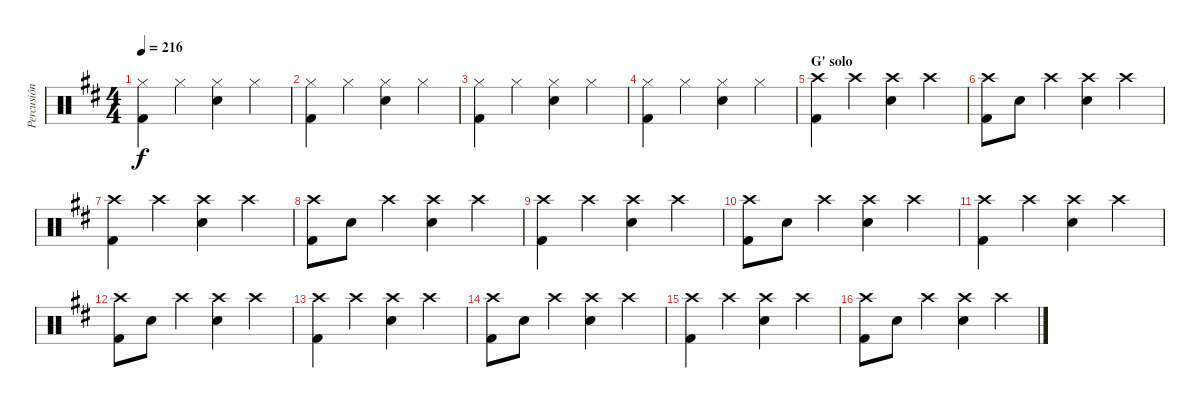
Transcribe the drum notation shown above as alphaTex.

\track ("Percusión" "Percusión") {instrument percussion}
\staff {score}
\articulation defaults
\ts (4 4)
\tempo 216
\clef neutral
\ks d
("Hi-Hat (closed)" "Kick (hit) 2").4{dy f} "Hi-Hat (closed)".4 ("Hi-Hat (closed)" "Electric Snare (hit)").4 "Hi-Hat (closed)".4 |
("Hi-Hat (closed)" "Kick (hit) 2").4 "Hi-Hat (closed)".4 ("Hi-Hat (closed)" "Electric Snare (hit)").4 "Hi-Hat (closed)".4 |
("Hi-Hat (closed)" "Kick (hit) 2").4 "Hi-Hat (closed)".4 ("Hi-Hat (closed)" "Electric Snare (hit)").4 "Hi-Hat (closed)".4 |
("Hi-Hat (closed)" "Kick (hit) 2").4 "Hi-Hat (closed)".4 ("Hi-Hat (closed)" "Electric Snare (hit)").4 "Hi-Hat (closed)".4 |
\section ("" "G' solo")
("Crash high (hit)" "Kick (hit) 2").4 "Crash high (hit)".4 ("Crash high (hit)" "Electric Snare (hit)").4 "Crash high (hit)".4 |
("Crash high (hit)" "Kick (hit) 2").8 "Electric Snare (hit)".8 "Crash high (hit)".4 ("Crash high (hit)" "Electric Snare (hit)").4 "Crash high (hit)".4 |
("Crash high (hit)" "Kick (hit) 2").4 "Crash high (hit)".4 ("Crash high (hit)" "Electric Snare (hit)").4 "Crash high (hit)".4 |
("Crash high (hit)" "Kick (hit) 2").8 "Electric Snare (hit)".8 "Crash high (hit)".4 ("Crash high (hit)" "Electric Snare (hit)").4 "Crash high (hit)".4 |
("Crash high (hit)" "Kick (hit) 2").4 "Crash high (hit)".4 ("Crash high (hit)" "Electric Snare (hit)").4 "Crash high (hit)".4 |
("Crash high (hit)" "Kick (hit) 2").8 "Electric Snare (hit)".8 "Crash high (hit)".4 ("Crash high (hit)" "Electric Snare (hit)").4 "Crash high (hit)".4 |
("Crash high (hit)" "Kick (hit) 2").4 "Crash high (hit)".4 ("Crash high (hit)" "Electric Snare (hit)").4 "Crash high (hit)".4 |
("Crash high (hit)" "Kick (hit) 2").8 "Electric Snare (hit)".8 "Crash high (hit)".4 ("Crash high (hit)" "Electric Snare (hit)").4 "Crash high (hit)".4 |
("Crash high (hit)" "Kick (hit) 2").4 "Crash high (hit)".4 ("Crash high (hit)" "Electric Snare (hit)").4 "Crash high (hit)".4 |
("Crash high (hit)" "Kick (hit) 2").8 "Electric Snare (hit)".8 "Crash high (hit)".4 ("Crash high (hit)" "Electric Snare (hit)").4 "Crash high (hit)".4 |
("Crash high (hit)" "Kick (hit) 2").4 "Crash high (hit)".4 ("Crash high (hit)" "Electric Snare (hit)").4 "Crash high (hit)".4 |
("Crash high (hit)" "Kick (hit) 2").8 "Electric Snare (hit)".8 "Crash high (hit)".4 ("Crash high (hit)" "Electric Snare (hit)").4 "Crash high (hit)".4
